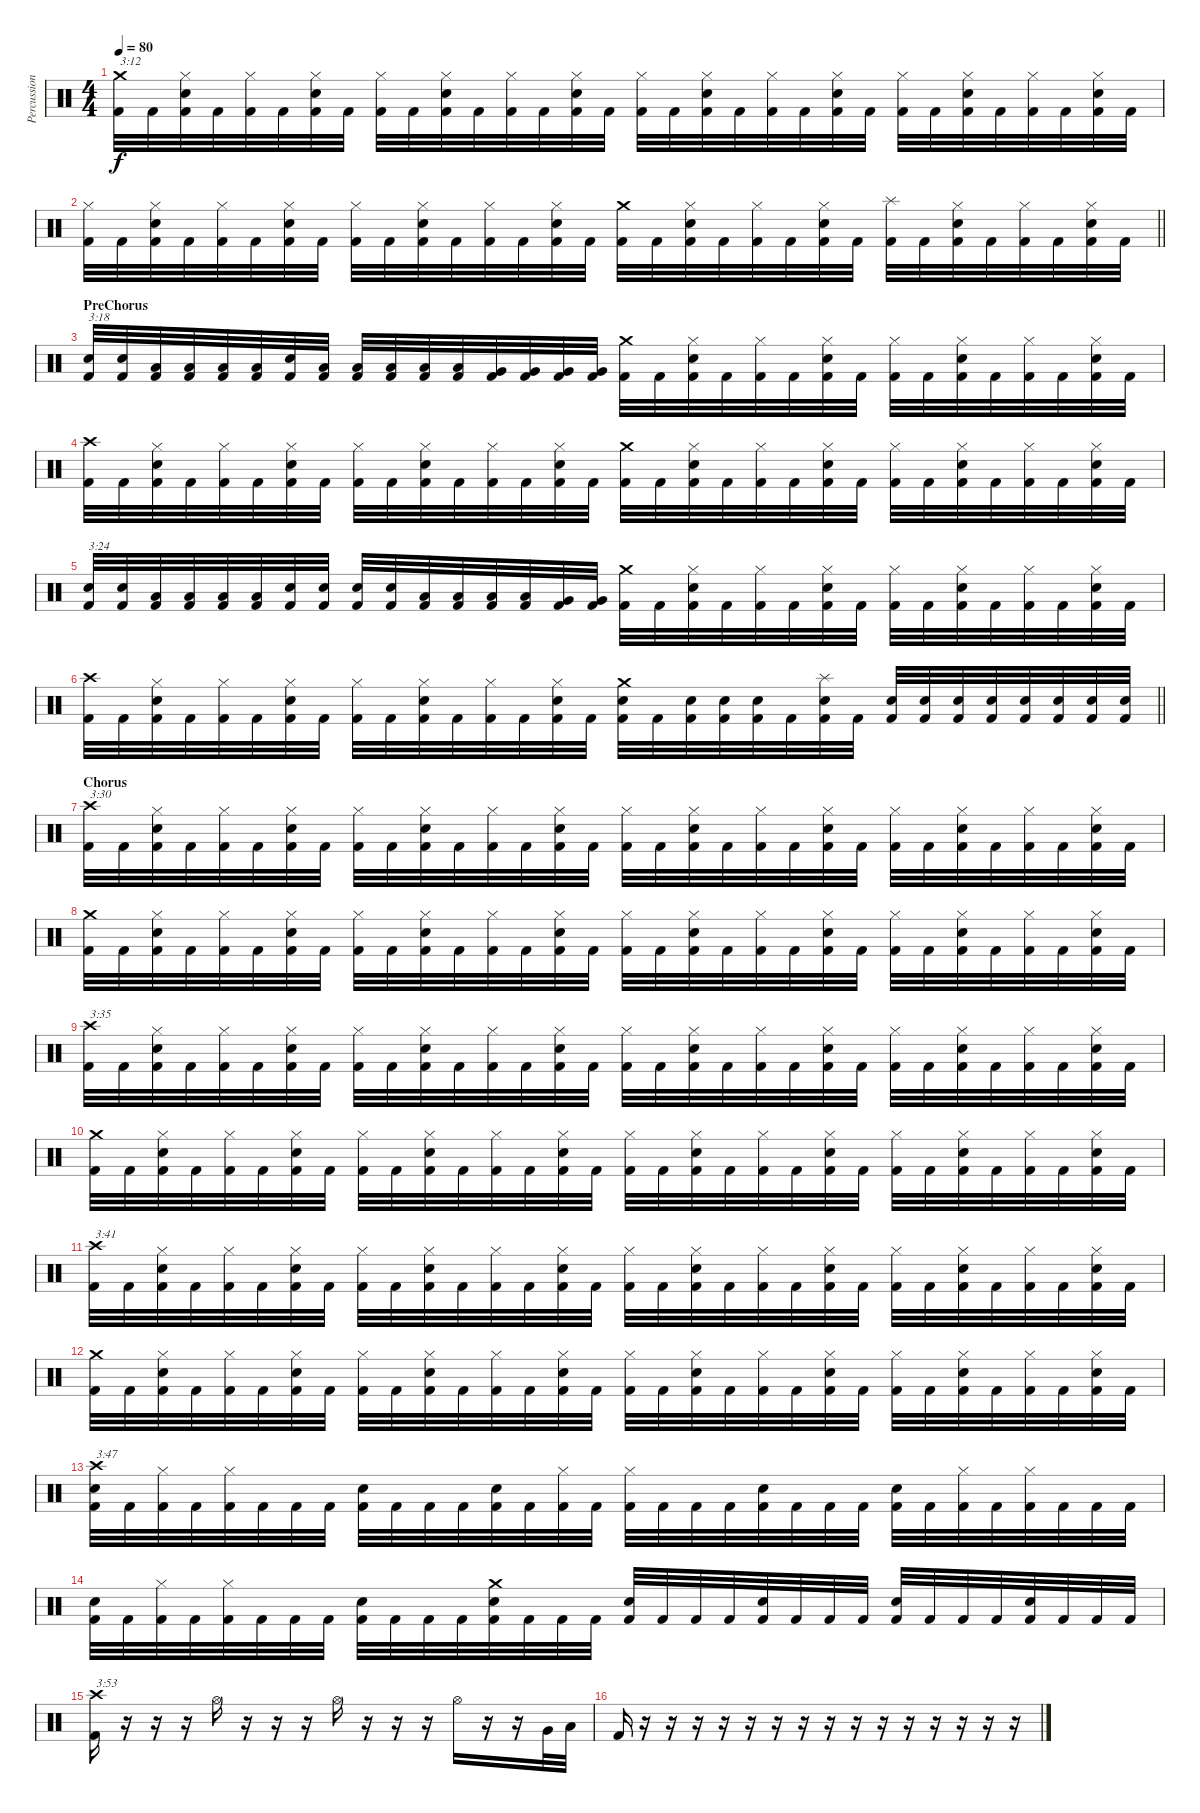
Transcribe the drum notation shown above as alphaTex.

\track ("Percussion" "Percussion") {instrument percussion}
\staff {score}
\articulation defaults
\ts (4 4)
\tempo 80
\clef neutral
\ks c
("Crash medium (hit)" "Kick (hit) 2").32{txt "3:12" dy f} "Kick (hit) 2".32 ("Hi-Hat (closed)" "Snare (hit) 2" "Kick (hit) 2").32 "Kick (hit) 2".32 ("Hi-Hat (closed)" "Kick (hit) 2").32 "Kick (hit) 2".32 ("Hi-Hat (closed)" "Snare (hit) 2" "Kick (hit) 2").32 "Kick (hit) 2".32 ("Hi-Hat (closed)" "Kick (hit) 2").32 "Kick (hit) 2".32 ("Hi-Hat (closed)" "Snare (hit) 2" "Kick (hit) 2").32 "Kick (hit) 2".32 ("Hi-Hat (closed)" "Kick (hit) 2").32 "Kick (hit) 2".32 ("Hi-Hat (closed)" "Snare (hit) 2" "Kick (hit) 2").32 "Kick (hit) 2".32 ("Hi-Hat (closed)" "Kick (hit) 2").32 "Kick (hit) 2".32 ("Hi-Hat (closed)" "Snare (hit) 2" "Kick (hit) 2").32 "Kick (hit) 2".32 ("Hi-Hat (closed)" "Kick (hit) 2").32 "Kick (hit) 2".32 ("Hi-Hat (closed)" "Snare (hit) 2" "Kick (hit) 2").32 "Kick (hit) 2".32 ("Hi-Hat (closed)" "Kick (hit) 2").32 "Kick (hit) 2".32 ("Hi-Hat (closed)" "Snare (hit) 2" "Kick (hit) 2").32 "Kick (hit) 2".32 ("Hi-Hat (closed)" "Kick (hit) 2").32 "Kick (hit) 2".32 ("Hi-Hat (closed)" "Snare (hit) 2" "Kick (hit) 2").32 "Kick (hit) 2".32 |
\barLineRight lightlight
("Hi-Hat (closed)" "Kick (hit) 2").32 "Kick (hit) 2".32 ("Hi-Hat (closed)" "Snare (hit) 2" "Kick (hit) 2").32 "Kick (hit) 2".32 ("Hi-Hat (closed)" "Kick (hit) 2").32 "Kick (hit) 2".32 ("Hi-Hat (closed)" "Snare (hit) 2" "Kick (hit) 2").32 "Kick (hit) 2".32 ("Hi-Hat (closed)" "Kick (hit) 2").32 "Kick (hit) 2".32 ("Hi-Hat (closed)" "Snare (hit) 2" "Kick (hit) 2").32 "Kick (hit) 2".32 ("Hi-Hat (closed)" "Kick (hit) 2").32 "Kick (hit) 2".32 ("Hi-Hat (closed)" "Snare (hit) 2" "Kick (hit) 2").32 "Kick (hit) 2".32 ("Crash medium (hit)" "Kick (hit) 2").32 "Kick (hit) 2".32 ("Hi-Hat (closed)" "Snare (hit) 2" "Kick (hit) 2").32 "Kick (hit) 2".32 ("Hi-Hat (closed)" "Kick (hit) 2").32 "Kick (hit) 2".32 ("Hi-Hat (closed)" "Snare (hit) 2" "Kick (hit) 2").32 "Kick (hit) 2".32 ("Splash (hit)" "Kick (hit) 2").32 "Kick (hit) 2".32 ("Hi-Hat (closed)" "Snare (hit) 2" "Kick (hit) 2").32 "Kick (hit) 2".32 ("Hi-Hat (closed)" "Kick (hit) 2").32 "Kick (hit) 2".32 ("Hi-Hat (closed)" "Snare (hit) 2" "Kick (hit) 2").32 "Kick (hit) 2".32 |
\section ("" "PreChorus")
("Snare (hit) 2" "Kick (hit) 2").32{txt "3:18"} ("Snare (hit) 2" "Kick (hit) 2").32 ("Low Tom (hit)" "Kick (hit) 2").32 ("Low Tom (hit)" "Kick (hit) 2").32 ("Low Tom (hit)" "Kick (hit) 2").32 ("Low Tom (hit)" "Kick (hit) 2").32 ("Snare (hit) 2" "Kick (hit) 2").32 ("Low Tom (hit)" "Kick (hit) 2").32 ("Low Tom (hit)" "Kick (hit) 2").32 ("Low Tom (hit)" "Kick (hit) 2").32 ("Low Tom (hit)" "Kick (hit) 2").32 ("Low Tom (hit)" "Kick (hit) 2").32 ("Very Low Tom (hit)" "Kick (hit) 2").32 ("Very Low Tom (hit)" "Kick (hit) 2").32 ("Very Low Tom (hit)" "Kick (hit) 2").32 ("Very Low Tom (hit)" "Kick (hit) 2").32 ("Crash medium (hit)" "Kick (hit) 2").32 "Kick (hit) 2".32 ("Hi-Hat (closed)" "Snare (hit) 2" "Kick (hit) 2").32 "Kick (hit) 2".32 ("Hi-Hat (closed)" "Kick (hit) 2").32 "Kick (hit) 2".32 ("Hi-Hat (closed)" "Snare (hit) 2" "Kick (hit) 2").32 "Kick (hit) 2".32 ("Hi-Hat (closed)" "Kick (hit) 2").32 "Kick (hit) 2".32 ("Hi-Hat (closed)" "Snare (hit) 2" "Kick (hit) 2").32 "Kick (hit) 2".32 ("Hi-Hat (closed)" "Kick (hit) 2").32 "Kick (hit) 2".32 ("Hi-Hat (closed)" "Snare (hit) 2" "Kick (hit) 2").32 "Kick (hit) 2".32 |
("Crash high (hit)" "Kick (hit) 2").32 "Kick (hit) 2".32 ("Hi-Hat (closed)" "Snare (hit) 2" "Kick (hit) 2").32 "Kick (hit) 2".32 ("Hi-Hat (closed)" "Kick (hit) 2").32 "Kick (hit) 2".32 ("Hi-Hat (closed)" "Snare (hit) 2" "Kick (hit) 2").32 "Kick (hit) 2".32 ("Hi-Hat (closed)" "Kick (hit) 2").32 "Kick (hit) 2".32 ("Hi-Hat (closed)" "Snare (hit) 2" "Kick (hit) 2").32 "Kick (hit) 2".32 ("Hi-Hat (closed)" "Kick (hit) 2").32 "Kick (hit) 2".32 ("Hi-Hat (closed)" "Snare (hit) 2" "Kick (hit) 2").32 "Kick (hit) 2".32 ("Crash medium (hit)" "Kick (hit) 2").32 "Kick (hit) 2".32 ("Hi-Hat (closed)" "Snare (hit) 2" "Kick (hit) 2").32 "Kick (hit) 2".32 ("Hi-Hat (closed)" "Kick (hit) 2").32 "Kick (hit) 2".32 ("Hi-Hat (closed)" "Snare (hit) 2" "Kick (hit) 2").32 "Kick (hit) 2".32 ("Hi-Hat (closed)" "Kick (hit) 2").32 "Kick (hit) 2".32 ("Hi-Hat (closed)" "Snare (hit) 2" "Kick (hit) 2").32 "Kick (hit) 2".32 ("Hi-Hat (closed)" "Kick (hit) 2").32 "Kick (hit) 2".32 ("Hi-Hat (closed)" "Snare (hit) 2" "Kick (hit) 2").32 "Kick (hit) 2".32 |
("Snare (hit) 2" "Kick (hit) 2").32{txt "3:24"} ("Snare (hit) 2" "Kick (hit) 2").32 ("Low Tom (hit)" "Kick (hit) 2").32 ("Low Tom (hit)" "Kick (hit) 2").32 ("Low Tom (hit)" "Kick (hit) 2").32 ("Low Tom (hit)" "Kick (hit) 2").32 ("Snare (hit) 2" "Kick (hit) 2").32 ("Snare (hit) 2" "Kick (hit) 2").32 ("Snare (hit) 2" "Kick (hit) 2").32 ("Snare (hit) 2" "Kick (hit) 2").32 ("Low Tom (hit)" "Kick (hit) 2").32 ("Low Tom (hit)" "Kick (hit) 2").32 ("Low Tom (hit)" "Kick (hit) 2").32 ("Low Tom (hit)" "Kick (hit) 2").32 ("Very Low Tom (hit)" "Kick (hit) 2").32 ("Very Low Tom (hit)" "Kick (hit) 2").32 ("Crash medium (hit)" "Kick (hit) 2").32 "Kick (hit) 2".32 ("Hi-Hat (closed)" "Snare (hit) 2" "Kick (hit) 2").32 "Kick (hit) 2".32 ("Hi-Hat (closed)" "Kick (hit) 2").32 "Kick (hit) 2".32 ("Hi-Hat (closed)" "Snare (hit) 2" "Kick (hit) 2").32 "Kick (hit) 2".32 ("Hi-Hat (closed)" "Kick (hit) 2").32 "Kick (hit) 2".32 ("Hi-Hat (closed)" "Snare (hit) 2" "Kick (hit) 2").32 "Kick (hit) 2".32 ("Hi-Hat (closed)" "Kick (hit) 2").32 "Kick (hit) 2".32 ("Hi-Hat (closed)" "Snare (hit) 2" "Kick (hit) 2").32 "Kick (hit) 2".32 |
\barLineRight lightlight
("Crash high (hit)" "Kick (hit) 2").32 "Kick (hit) 2".32 ("Hi-Hat (closed)" "Snare (hit) 2" "Kick (hit) 2").32 "Kick (hit) 2".32 ("Hi-Hat (closed)" "Kick (hit) 2").32 "Kick (hit) 2".32 ("Hi-Hat (closed)" "Snare (hit) 2" "Kick (hit) 2").32 "Kick (hit) 2".32 ("Hi-Hat (closed)" "Kick (hit) 2").32 "Kick (hit) 2".32 ("Hi-Hat (closed)" "Snare (hit) 2" "Kick (hit) 2").32 "Kick (hit) 2".32 ("Hi-Hat (closed)" "Kick (hit) 2").32 "Kick (hit) 2".32 ("Hi-Hat (closed)" "Snare (hit) 2" "Kick (hit) 2").32 "Kick (hit) 2".32 ("Crash medium (hit)" "Snare (hit) 2" "Kick (hit) 2").32 "Kick (hit) 2".32 ("Snare (hit) 2" "Kick (hit) 2").32 ("Snare (hit) 2" "Kick (hit) 2").32 ("Snare (hit) 2" "Kick (hit) 2").32 "Kick (hit) 2".32 ("Splash (hit)" "Snare (hit) 2" "Kick (hit) 2").32 "Kick (hit) 2".32 ("Snare (hit) 2" "Kick (hit) 2").32 ("Snare (hit) 2" "Kick (hit) 2").32 ("Snare (hit) 2" "Kick (hit) 2").32 ("Snare (hit) 2" "Kick (hit) 2").32 ("Snare (hit) 2" "Kick (hit) 2").32 ("Snare (hit) 2" "Kick (hit) 2").32 ("Snare (hit) 2" "Kick (hit) 2").32 ("Snare (hit) 2" "Kick (hit) 2").32 |
\section ("" "Chorus")
("Crash high (hit)" "Kick (hit) 2").32{txt "3:30"} "Kick (hit) 2".32 ("Hi-Hat (closed)" "Snare (hit) 2" "Kick (hit) 2").32 "Kick (hit) 2".32 ("Hi-Hat (closed)" "Kick (hit) 2").32 "Kick (hit) 2".32 ("Hi-Hat (closed)" "Snare (hit) 2" "Kick (hit) 2").32 "Kick (hit) 2".32 ("Hi-Hat (closed)" "Kick (hit) 2").32 "Kick (hit) 2".32 ("Hi-Hat (closed)" "Snare (hit) 2" "Kick (hit) 2").32 "Kick (hit) 2".32 ("Hi-Hat (closed)" "Kick (hit) 2").32 "Kick (hit) 2".32 ("Hi-Hat (closed)" "Snare (hit) 2" "Kick (hit) 2").32 "Kick (hit) 2".32 ("Hi-Hat (closed)" "Kick (hit) 2").32 "Kick (hit) 2".32 ("Hi-Hat (closed)" "Snare (hit) 2" "Kick (hit) 2").32 "Kick (hit) 2".32 ("Hi-Hat (closed)" "Kick (hit) 2").32 "Kick (hit) 2".32 ("Hi-Hat (closed)" "Snare (hit) 2" "Kick (hit) 2").32 "Kick (hit) 2".32 ("Hi-Hat (closed)" "Kick (hit) 2").32 "Kick (hit) 2".32 ("Hi-Hat (closed)" "Snare (hit) 2" "Kick (hit) 2").32 "Kick (hit) 2".32 ("Hi-Hat (closed)" "Kick (hit) 2").32 "Kick (hit) 2".32 ("Hi-Hat (closed)" "Snare (hit) 2" "Kick (hit) 2").32 "Kick (hit) 2".32 |
("Crash medium (hit)" "Kick (hit) 2").32 "Kick (hit) 2".32 ("Hi-Hat (closed)" "Snare (hit) 2" "Kick (hit) 2").32 "Kick (hit) 2".32 ("Hi-Hat (closed)" "Kick (hit) 2").32 "Kick (hit) 2".32 ("Hi-Hat (closed)" "Snare (hit) 2" "Kick (hit) 2").32 "Kick (hit) 2".32 ("Hi-Hat (closed)" "Kick (hit) 2").32 "Kick (hit) 2".32 ("Hi-Hat (closed)" "Snare (hit) 2" "Kick (hit) 2").32 "Kick (hit) 2".32 ("Hi-Hat (closed)" "Kick (hit) 2").32 "Kick (hit) 2".32 ("Hi-Hat (closed)" "Snare (hit) 2" "Kick (hit) 2").32 "Kick (hit) 2".32 ("Hi-Hat (closed)" "Kick (hit) 2").32 "Kick (hit) 2".32 ("Hi-Hat (closed)" "Snare (hit) 2" "Kick (hit) 2").32 "Kick (hit) 2".32 ("Hi-Hat (closed)" "Kick (hit) 2").32 "Kick (hit) 2".32 ("Hi-Hat (closed)" "Snare (hit) 2" "Kick (hit) 2").32 "Kick (hit) 2".32 ("Hi-Hat (closed)" "Kick (hit) 2").32 "Kick (hit) 2".32 ("Hi-Hat (closed)" "Snare (hit) 2" "Kick (hit) 2").32 "Kick (hit) 2".32 ("Hi-Hat (closed)" "Kick (hit) 2").32 "Kick (hit) 2".32 ("Hi-Hat (closed)" "Snare (hit) 2" "Kick (hit) 2").32 "Kick (hit) 2".32 |
("Crash high (hit)" "Kick (hit) 2").32{txt "3:35"} "Kick (hit) 2".32 ("Hi-Hat (closed)" "Snare (hit) 2" "Kick (hit) 2").32 "Kick (hit) 2".32 ("Hi-Hat (closed)" "Kick (hit) 2").32 "Kick (hit) 2".32 ("Hi-Hat (closed)" "Snare (hit) 2" "Kick (hit) 2").32 "Kick (hit) 2".32 ("Hi-Hat (closed)" "Kick (hit) 2").32 "Kick (hit) 2".32 ("Hi-Hat (closed)" "Snare (hit) 2" "Kick (hit) 2").32 "Kick (hit) 2".32 ("Hi-Hat (closed)" "Kick (hit) 2").32 "Kick (hit) 2".32 ("Hi-Hat (closed)" "Snare (hit) 2" "Kick (hit) 2").32 "Kick (hit) 2".32 ("Hi-Hat (closed)" "Kick (hit) 2").32 "Kick (hit) 2".32 ("Hi-Hat (closed)" "Snare (hit) 2" "Kick (hit) 2").32 "Kick (hit) 2".32 ("Hi-Hat (closed)" "Kick (hit) 2").32 "Kick (hit) 2".32 ("Hi-Hat (closed)" "Snare (hit) 2" "Kick (hit) 2").32 "Kick (hit) 2".32 ("Hi-Hat (closed)" "Kick (hit) 2").32 "Kick (hit) 2".32 ("Hi-Hat (closed)" "Snare (hit) 2" "Kick (hit) 2").32 "Kick (hit) 2".32 ("Hi-Hat (closed)" "Kick (hit) 2").32 "Kick (hit) 2".32 ("Hi-Hat (closed)" "Snare (hit) 2" "Kick (hit) 2").32 "Kick (hit) 2".32 |
("Crash medium (hit)" "Kick (hit) 2").32 "Kick (hit) 2".32 ("Hi-Hat (closed)" "Snare (hit) 2" "Kick (hit) 2").32 "Kick (hit) 2".32 ("Hi-Hat (closed)" "Kick (hit) 2").32 "Kick (hit) 2".32 ("Hi-Hat (closed)" "Snare (hit) 2" "Kick (hit) 2").32 "Kick (hit) 2".32 ("Hi-Hat (closed)" "Kick (hit) 2").32 "Kick (hit) 2".32 ("Hi-Hat (closed)" "Snare (hit) 2" "Kick (hit) 2").32 "Kick (hit) 2".32 ("Hi-Hat (closed)" "Kick (hit) 2").32 "Kick (hit) 2".32 ("Hi-Hat (closed)" "Snare (hit) 2" "Kick (hit) 2").32 "Kick (hit) 2".32 ("Hi-Hat (closed)" "Kick (hit) 2").32 "Kick (hit) 2".32 ("Hi-Hat (closed)" "Snare (hit) 2" "Kick (hit) 2").32 "Kick (hit) 2".32 ("Hi-Hat (closed)" "Kick (hit) 2").32 "Kick (hit) 2".32 ("Hi-Hat (closed)" "Snare (hit) 2" "Kick (hit) 2").32 "Kick (hit) 2".32 ("Hi-Hat (closed)" "Kick (hit) 2").32 "Kick (hit) 2".32 ("Hi-Hat (closed)" "Snare (hit) 2" "Kick (hit) 2").32 "Kick (hit) 2".32 ("Hi-Hat (closed)" "Kick (hit) 2").32 "Kick (hit) 2".32 ("Hi-Hat (closed)" "Snare (hit) 2" "Kick (hit) 2").32 "Kick (hit) 2".32 |
("Crash high (hit)" "Kick (hit) 2").32{txt "3:41"} "Kick (hit) 2".32 ("Hi-Hat (closed)" "Snare (hit) 2" "Kick (hit) 2").32 "Kick (hit) 2".32 ("Hi-Hat (closed)" "Kick (hit) 2").32 "Kick (hit) 2".32 ("Hi-Hat (closed)" "Snare (hit) 2" "Kick (hit) 2").32 "Kick (hit) 2".32 ("Hi-Hat (closed)" "Kick (hit) 2").32 "Kick (hit) 2".32 ("Hi-Hat (closed)" "Snare (hit) 2" "Kick (hit) 2").32 "Kick (hit) 2".32 ("Hi-Hat (closed)" "Kick (hit) 2").32 "Kick (hit) 2".32 ("Hi-Hat (closed)" "Snare (hit) 2" "Kick (hit) 2").32 "Kick (hit) 2".32 ("Hi-Hat (closed)" "Kick (hit) 2").32 "Kick (hit) 2".32 ("Hi-Hat (closed)" "Snare (hit) 2" "Kick (hit) 2").32 "Kick (hit) 2".32 ("Hi-Hat (closed)" "Kick (hit) 2").32 "Kick (hit) 2".32 ("Hi-Hat (closed)" "Snare (hit) 2" "Kick (hit) 2").32 "Kick (hit) 2".32 ("Hi-Hat (closed)" "Kick (hit) 2").32 "Kick (hit) 2".32 ("Hi-Hat (closed)" "Snare (hit) 2" "Kick (hit) 2").32 "Kick (hit) 2".32 ("Hi-Hat (closed)" "Kick (hit) 2").32 "Kick (hit) 2".32 ("Hi-Hat (closed)" "Snare (hit) 2" "Kick (hit) 2").32 "Kick (hit) 2".32 |
("Crash medium (hit)" "Kick (hit) 2").32 "Kick (hit) 2".32 ("Hi-Hat (closed)" "Snare (hit) 2" "Kick (hit) 2").32 "Kick (hit) 2".32 ("Hi-Hat (closed)" "Kick (hit) 2").32 "Kick (hit) 2".32 ("Hi-Hat (closed)" "Snare (hit) 2" "Kick (hit) 2").32 "Kick (hit) 2".32 ("Hi-Hat (closed)" "Kick (hit) 2").32 "Kick (hit) 2".32 ("Hi-Hat (closed)" "Snare (hit) 2" "Kick (hit) 2").32 "Kick (hit) 2".32 ("Hi-Hat (closed)" "Kick (hit) 2").32 "Kick (hit) 2".32 ("Hi-Hat (closed)" "Snare (hit) 2" "Kick (hit) 2").32 "Kick (hit) 2".32 ("Hi-Hat (closed)" "Kick (hit) 2").32 "Kick (hit) 2".32 ("Hi-Hat (closed)" "Snare (hit) 2" "Kick (hit) 2").32 "Kick (hit) 2".32 ("Hi-Hat (closed)" "Kick (hit) 2").32 "Kick (hit) 2".32 ("Hi-Hat (closed)" "Snare (hit) 2" "Kick (hit) 2").32 "Kick (hit) 2".32 ("Hi-Hat (closed)" "Kick (hit) 2").32 "Kick (hit) 2".32 ("Hi-Hat (closed)" "Snare (hit) 2" "Kick (hit) 2").32 "Kick (hit) 2".32 ("Hi-Hat (closed)" "Kick (hit) 2").32 "Kick (hit) 2".32 ("Hi-Hat (closed)" "Snare (hit) 2" "Kick (hit) 2").32 "Kick (hit) 2".32 |
("Crash high (hit)" "Snare (hit) 2" "Kick (hit) 2").32{txt "3:47"} "Kick (hit) 2".32 ("Hi-Hat (closed)" "Kick (hit) 2").32 "Kick (hit) 2".32 ("Hi-Hat (closed)" "Kick (hit) 2").32 "Kick (hit) 2".32 "Kick (hit) 2".32 "Kick (hit) 2".32 ("Snare (hit) 2" "Kick (hit) 2").32 "Kick (hit) 2".32 "Kick (hit) 2".32 "Kick (hit) 2".32 ("Snare (hit) 2" "Kick (hit) 2").32 "Kick (hit) 2".32 ("Hi-Hat (closed)" "Kick (hit) 2").32 "Kick (hit) 2".32 ("Hi-Hat (closed)" "Kick (hit) 2").32 "Kick (hit) 2".32 "Kick (hit) 2".32 "Kick (hit) 2".32 ("Snare (hit) 2" "Kick (hit) 2").32 "Kick (hit) 2".32 "Kick (hit) 2".32 "Kick (hit) 2".32 ("Snare (hit) 2" "Kick (hit) 2").32 "Kick (hit) 2".32 ("Hi-Hat (closed)" "Kick (hit) 2").32 "Kick (hit) 2".32 ("Hi-Hat (closed)" "Kick (hit) 2").32 "Kick (hit) 2".32 "Kick (hit) 2".32 "Kick (hit) 2".32 |
("Snare (hit) 2" "Kick (hit) 2").32 "Kick (hit) 2".32 ("Hi-Hat (closed)" "Kick (hit) 2").32 "Kick (hit) 2".32 ("Hi-Hat (closed)" "Kick (hit) 2").32 "Kick (hit) 2".32 "Kick (hit) 2".32 "Kick (hit) 2".32 ("Snare (hit) 2" "Kick (hit) 2").32 "Kick (hit) 2".32 "Kick (hit) 2".32 "Kick (hit) 2".32 ("Crash medium (hit)" "Snare (hit) 2" "Kick (hit) 2").32 "Kick (hit) 2".32 "Kick (hit) 2".32 "Kick (hit) 2".32 ("Snare (hit) 2" "Kick (hit) 2").32 "Kick (hit) 2".32 "Kick (hit) 2".32 "Kick (hit) 2".32 ("Snare (hit) 2" "Kick (hit) 2").32 "Kick (hit) 2".32 "Kick (hit) 2".32 "Kick (hit) 2".32 ("Snare (hit) 2" "Kick (hit) 2").32 "Kick (hit) 2".32 "Kick (hit) 2".32 "Kick (hit) 2".32 ("Snare (hit) 2" "Kick (hit) 2").32 "Kick (hit) 2".32 "Kick (hit) 2".32 "Kick (hit) 2".32 |
("Crash high (hit)" "Kick (hit) 2").16{txt "3:53"} r.16 r.16 r.16 "Hi-Hat (open)".16 r.16 r.16 r.16 "Hi-Hat (open)".16 r.16 r.16 r.16 "Hi-Hat (open)".16 r.16 r.16 "Very Low Tom (hit)".32 "Low Floor Tom (hit)".32 |
"Kick (hit) 2".16 r.16 r.16 r.16 r.16 r.16 r.16 r.16 r.16 r.16 r.16 r.16 r.16 r.16 r.16 r.16
